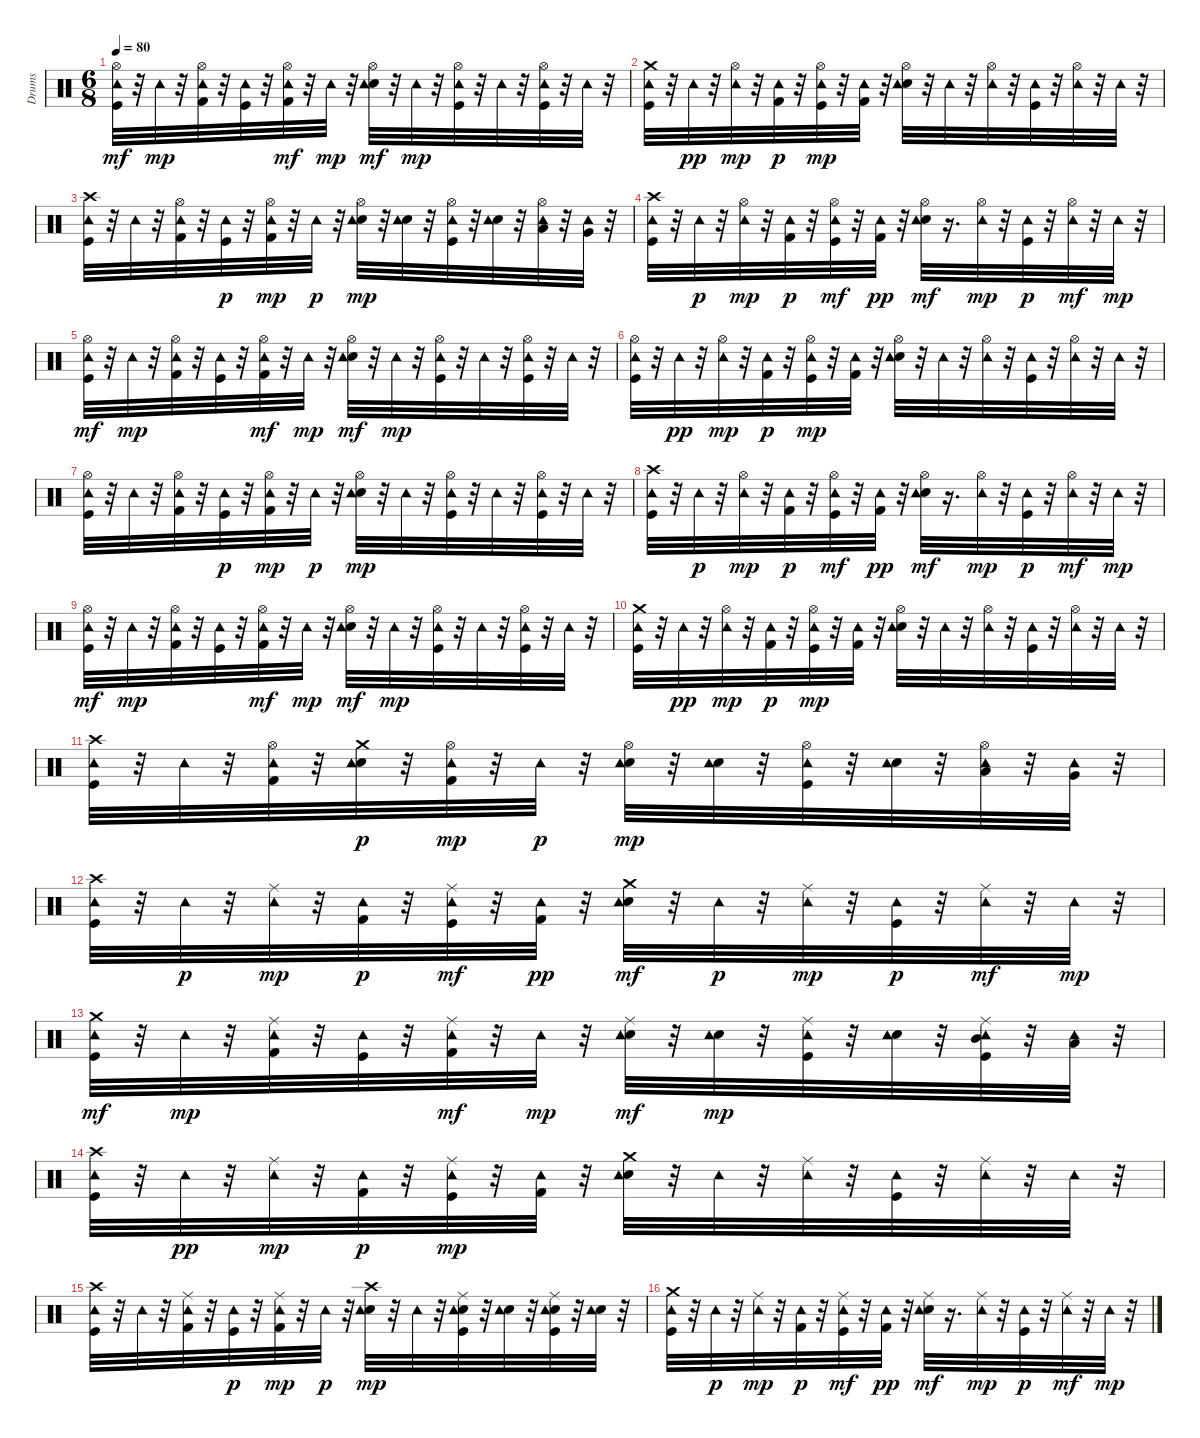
\track ("Drums" "Drums") {instrument percussion}
\staff {score}
\articulation defaults
\ts (6 8)
\tempo 80
\clef neutral
\ks c
("Kick (hit)" "Hi-Hat (open)" "Tambourine (hit)").32{dy mf} r.32 "Tambourine (hit)".32{dy mp} r.32 ("Kick (hit) 2" "Hi-Hat (open)" "Tambourine (hit)").32 r.32 ("Kick (hit)" "Tambourine (hit)").32 r.32 ("Kick (hit) 2" "Hi-Hat (open)" "Tambourine (hit)").32{dy mf} r.32 "Tambourine (hit)".32{dy mp} r.32 ("Electric Snare (hit)" "Hi-Hat (open)" "Tambourine (hit)").32{dy mf} r.32 "Tambourine (hit)".32{dy mp} r.32 ("Kick (hit)" "Hi-Hat (open)" "Tambourine (hit)").32 r.32 "Tambourine (hit)".32 r.32 ("Kick (hit)" "Hi-Hat (open)" "Tambourine (hit)").32 r.32 "Tambourine (hit)".32 r.32 |
("Kick (hit)" "Tambourine (hit)" "Crash medium (hit)").32 r.32 "Tambourine (hit)".32{dy pp} r.32 ("Hi-Hat (open)" "Tambourine (hit)").32{dy mp} r.32 ("Kick (hit) 2" "Tambourine (hit)").32{dy p} r.32 ("Kick (hit)" "Hi-Hat (open)" "Tambourine (hit)").32{dy mp} r.32 ("Kick (hit) 2" "Tambourine (hit)").32 r.32 ("Electric Snare (hit)" "Hi-Hat (open)" "Tambourine (hit)").32 r.32 "Tambourine (hit)".32 r.32 ("Hi-Hat (open)" "Tambourine (hit)").32 r.32 ("Kick (hit)" "Tambourine (hit)").32 r.32 ("Hi-Hat (open)" "Tambourine (hit)").32 r.32 "Tambourine (hit)".32 r.32 |
("Kick (hit)" "Crash high (hit)" "Tambourine (hit)").32 r.32 "Tambourine (hit)".32 r.32 ("Kick (hit) 2" "Hi-Hat (open)" "Tambourine (hit)").32 r.32 ("Kick (hit)" "Tambourine (hit)").32{dy p} r.32 ("Kick (hit) 2" "Hi-Hat (open)" "Tambourine (hit)").32{dy mp} r.32 "Tambourine (hit)".32{dy p} r.32 ("Electric Snare (hit)" "Hi-Hat (open)" "Tambourine (hit)").32{dy mp} r.32 ("Electric Snare (hit)" "Tambourine (hit)").32 r.32 ("Kick (hit)" "Hi-Hat (open)" "Tambourine (hit)").32 r.32 ("Electric Snare (hit)" "Tambourine (hit)").32 r.32 ("Low Tom (hit)" "Hi-Hat (open)" "Tambourine (hit)").32 r.32 ("Very Low Tom (hit)" "Tambourine (hit)").32 r.32 |
("Kick (hit)" "Crash high (hit)" "Tambourine (hit)").32 r.32 "Tambourine (hit)".32{dy p} r.32 ("Hi-Hat (open)" "Tambourine (hit)").32{dy mp} r.32 ("Kick (hit) 2" "Tambourine (hit)").32{dy p} r.32 ("Kick (hit)" "Hi-Hat (open)" "Tambourine (hit)").32{dy mf} r.32 ("Kick (hit) 2" "Tambourine (hit)").32{dy pp} r.32 ("Electric Snare (hit)" "Hi-Hat (open)" "Tambourine (hit)").32{dy mf} r.16{d} ("Hi-Hat (open)" "Tambourine (hit)").32{dy mp} r.32 ("Kick (hit)" "Tambourine (hit)").32{dy p} r.32 ("Hi-Hat (open)" "Tambourine (hit)").32{dy mf} r.32 "Tambourine (hit)".32{dy mp} r.32 |
("Kick (hit)" "Hi-Hat (open)" "Tambourine (hit)").32{dy mf} r.32 "Tambourine (hit)".32{dy mp} r.32 ("Kick (hit) 2" "Hi-Hat (open)" "Tambourine (hit)").32 r.32 ("Kick (hit)" "Tambourine (hit)").32 r.32 ("Kick (hit) 2" "Hi-Hat (open)" "Tambourine (hit)").32{dy mf} r.32 "Tambourine (hit)".32{dy mp} r.32 ("Electric Snare (hit)" "Hi-Hat (open)" "Tambourine (hit)").32{dy mf} r.32 "Tambourine (hit)".32{dy mp} r.32 ("Kick (hit)" "Hi-Hat (open)" "Tambourine (hit)").32 r.32 "Tambourine (hit)".32 r.32 ("Kick (hit)" "Hi-Hat (open)" "Tambourine (hit)").32 r.32 "Tambourine (hit)".32 r.32 |
("Kick (hit)" "Hi-Hat (open)" "Tambourine (hit)").32 r.32 "Tambourine (hit)".32{dy pp} r.32 ("Hi-Hat (open)" "Tambourine (hit)").32{dy mp} r.32 ("Kick (hit) 2" "Tambourine (hit)").32{dy p} r.32 ("Kick (hit)" "Hi-Hat (open)" "Tambourine (hit)").32{dy mp} r.32 ("Kick (hit) 2" "Tambourine (hit)").32 r.32 ("Electric Snare (hit)" "Hi-Hat (open)" "Tambourine (hit)").32 r.32 "Tambourine (hit)".32 r.32 ("Hi-Hat (open)" "Tambourine (hit)").32 r.32 ("Kick (hit)" "Tambourine (hit)").32 r.32 ("Hi-Hat (open)" "Tambourine (hit)").32 r.32 "Tambourine (hit)".32 r.32 |
("Kick (hit)" "Hi-Hat (open)" "Tambourine (hit)").32 r.32 "Tambourine (hit)".32 r.32 ("Kick (hit) 2" "Hi-Hat (open)" "Tambourine (hit)").32 r.32 ("Kick (hit)" "Tambourine (hit)").32{dy p} r.32 ("Kick (hit) 2" "Hi-Hat (open)" "Tambourine (hit)").32{dy mp} r.32 "Tambourine (hit)".32{dy p} r.32 ("Electric Snare (hit)" "Hi-Hat (open)" "Tambourine (hit)").32{dy mp} r.32 "Tambourine (hit)".32 r.32 ("Kick (hit)" "Hi-Hat (open)" "Tambourine (hit)").32 r.32 "Tambourine (hit)".32 r.32 ("Kick (hit)" "Hi-Hat (open)" "Tambourine (hit)").32 r.32 "Tambourine (hit)".32 r.32 |
("Kick (hit)" "Crash high (hit)" "Tambourine (hit)").32 r.32 "Tambourine (hit)".32{dy p} r.32 ("Hi-Hat (open)" "Tambourine (hit)").32{dy mp} r.32 ("Kick (hit) 2" "Tambourine (hit)").32{dy p} r.32 ("Kick (hit)" "Hi-Hat (open)" "Tambourine (hit)").32{dy mf} r.32 ("Kick (hit) 2" "Tambourine (hit)").32{dy pp} r.32 ("Electric Snare (hit)" "Hi-Hat (open)" "Tambourine (hit)").32{dy mf} r.16{d} ("Hi-Hat (open)" "Tambourine (hit)").32{dy mp} r.32 ("Kick (hit)" "Tambourine (hit)").32{dy p} r.32 ("Hi-Hat (open)" "Tambourine (hit)").32{dy mf} r.32 "Tambourine (hit)".32{dy mp} r.32 |
("Kick (hit)" "Hi-Hat (open)" "Tambourine (hit)").32{dy mf} r.32 "Tambourine (hit)".32{dy mp} r.32 ("Kick (hit) 2" "Hi-Hat (open)" "Tambourine (hit)").32 r.32 ("Kick (hit)" "Tambourine (hit)").32 r.32 ("Kick (hit) 2" "Hi-Hat (open)" "Tambourine (hit)").32{dy mf} r.32 "Tambourine (hit)".32{dy mp} r.32 ("Electric Snare (hit)" "Hi-Hat (open)" "Tambourine (hit)").32{dy mf} r.32 "Tambourine (hit)".32{dy mp} r.32 ("Kick (hit)" "Hi-Hat (open)" "Tambourine (hit)").32 r.32 "Tambourine (hit)".32 r.32 ("Kick (hit)" "Hi-Hat (open)" "Tambourine (hit)").32 r.32 "Tambourine (hit)".32 r.32 |
("Kick (hit)" "Tambourine (hit)" "Crash medium (hit)").32 r.32 "Tambourine (hit)".32{dy pp} r.32 ("Hi-Hat (open)" "Tambourine (hit)").32{dy mp} r.32 ("Kick (hit) 2" "Tambourine (hit)").32{dy p} r.32 ("Kick (hit)" "Hi-Hat (open)" "Tambourine (hit)").32{dy mp} r.32 ("Kick (hit) 2" "Tambourine (hit)").32 r.32 ("Electric Snare (hit)" "Hi-Hat (open)" "Tambourine (hit)").32 r.32 "Tambourine (hit)".32 r.32 ("Hi-Hat (open)" "Tambourine (hit)").32 r.32 ("Kick (hit)" "Tambourine (hit)").32 r.32 ("Hi-Hat (open)" "Tambourine (hit)").32 r.32 "Tambourine (hit)".32 r.32 |
("Kick (hit)" "Crash high (hit)" "Tambourine (hit)").32 r.32 "Tambourine (hit)".32 r.32 ("Kick (hit) 2" "Hi-Hat (open)" "Tambourine (hit)").32 r.32 ("Electric Snare (hit)" "Tambourine (hit)" "Crash medium (hit)").32{dy p} r.32 ("Kick (hit) 2" "Hi-Hat (open)" "Tambourine (hit)").32{dy mp} r.32 "Tambourine (hit)".32{dy p} r.32 ("Electric Snare (hit)" "Hi-Hat (open)" "Tambourine (hit)").32{dy mp} r.32 ("Electric Snare (hit)" "Tambourine (hit)").32 r.32 ("Kick (hit)" "Hi-Hat (open)" "Tambourine (hit)").32 r.32 ("Electric Snare (hit)" "Tambourine (hit)").32 r.32 ("Low Tom (hit)" "Hi-Hat (open)" "Tambourine (hit)").32 r.32 ("Very Low Tom (hit)" "Tambourine (hit)").32 r.32 |
("Kick (hit)" "Crash high (hit)" "Tambourine (hit)").32 r.32 "Tambourine (hit)".32{dy p} r.32 ("Ride (middle)" "Tambourine (hit)").32{dy mp} r.32 ("Kick (hit) 2" "Tambourine (hit)").32{dy p} r.32 ("Kick (hit)" "Ride (middle)" "Tambourine (hit)").32{dy mf} r.32 ("Kick (hit) 2" "Tambourine (hit)").32{dy pp} r.32 ("Electric Snare (hit)" "Tambourine (hit)" "Crash medium (hit)").32{dy mf} r.32 "Tambourine (hit)".32{dy p} r.32 ("Ride (middle)" "Tambourine (hit)").32{dy mp} r.32 ("Kick (hit)" "Tambourine (hit)").32{dy p} r.32 ("Ride (middle)" "Tambourine (hit)").32{dy mf} r.32 "Tambourine (hit)".32{dy mp} r.32 |
("Kick (hit)" "Tambourine (hit)" "Crash medium (hit)").32{dy mf} r.32 "Tambourine (hit)".32{dy mp} r.32 ("Kick (hit) 2" "Ride (middle)" "Tambourine (hit)").32 r.32 ("Kick (hit)" "Tambourine (hit)").32 r.32 ("Kick (hit) 2" "Ride (middle)" "Tambourine (hit)").32{dy mf} r.32 "Tambourine (hit)".32{dy mp} r.32 ("Electric Snare (hit)" "Ride (middle)" "Tambourine (hit)").32{dy mf} r.32 ("Electric Snare (hit)" "Tambourine (hit)").32{dy mp} r.32 ("Kick (hit)" "Ride (middle)" "Tambourine (hit)").32 r.32 ("Electric Snare (hit)" "Tambourine (hit)").32 r.32 ("Kick (hit)" "Mid Tom (hit)" "Ride (middle)" "Tambourine (hit)").32 r.32 ("Low Tom (hit)" "Tambourine (hit)").32 r.32 |
("Kick (hit)" "Crash high (hit)" "Tambourine (hit)").32 r.32 "Tambourine (hit)".32{dy pp} r.32 ("Ride (middle)" "Tambourine (hit)").32{dy mp} r.32 ("Kick (hit) 2" "Tambourine (hit)").32{dy p} r.32 ("Kick (hit)" "Ride (middle)" "Tambourine (hit)").32{dy mp} r.32 ("Kick (hit) 2" "Tambourine (hit)").32 r.32 ("Electric Snare (hit)" "Tambourine (hit)" "Crash medium (hit)").32 r.32 "Tambourine (hit)".32 r.32 ("Ride (middle)" "Tambourine (hit)").32 r.32 ("Kick (hit)" "Tambourine (hit)").32 r.32 ("Ride (middle)" "Tambourine (hit)").32 r.32 "Tambourine (hit)".32 r.32 |
("Kick (hit)" "Crash high (hit)" "Tambourine (hit)").32 r.32 "Tambourine (hit)".32 r.32 ("Kick (hit) 2" "Ride (middle)" "Tambourine (hit)").32 r.32 ("Kick (hit)" "Tambourine (hit)").32{dy p} r.32 ("Kick (hit) 2" "Ride (middle)" "Tambourine (hit)").32{dy mp} r.32 "Tambourine (hit)".32{dy p} r.32 ("Electric Snare (hit)" "Crash high (hit)" "Tambourine (hit)").32{dy mp} r.32 "Tambourine (hit)".32 r.32 ("Kick (hit)" "Electric Snare (hit)" "Ride (middle)" "Tambourine (hit)").32 r.32 ("Electric Snare (hit)" "Tambourine (hit)").32 r.32 ("Kick (hit)" "Electric Snare (hit)" "Ride (middle)" "Tambourine (hit)").32 r.32 ("Electric Snare (hit)" "Tambourine (hit)").32 r.32 |
("Kick (hit)" "Tambourine (hit)" "Crash medium (hit)").32 r.32 "Tambourine (hit)".32{dy p} r.32 ("Ride (middle)" "Tambourine (hit)").32{dy mp} r.32 ("Kick (hit) 2" "Tambourine (hit)").32{dy p} r.32 ("Kick (hit)" "Ride (middle)" "Tambourine (hit)").32{dy mf} r.32 ("Kick (hit) 2" "Tambourine (hit)").32{dy pp} r.32 ("Electric Snare (hit)" "Ride (middle)" "Tambourine (hit)").32{dy mf} r.16{d} ("Ride (middle)" "Tambourine (hit)").32{dy mp} r.32 ("Kick (hit)" "Tambourine (hit)").32{dy p} r.32 ("Ride (middle)" "Tambourine (hit)").32{dy mf} r.32 "Tambourine (hit)".32{dy mp} r.32
